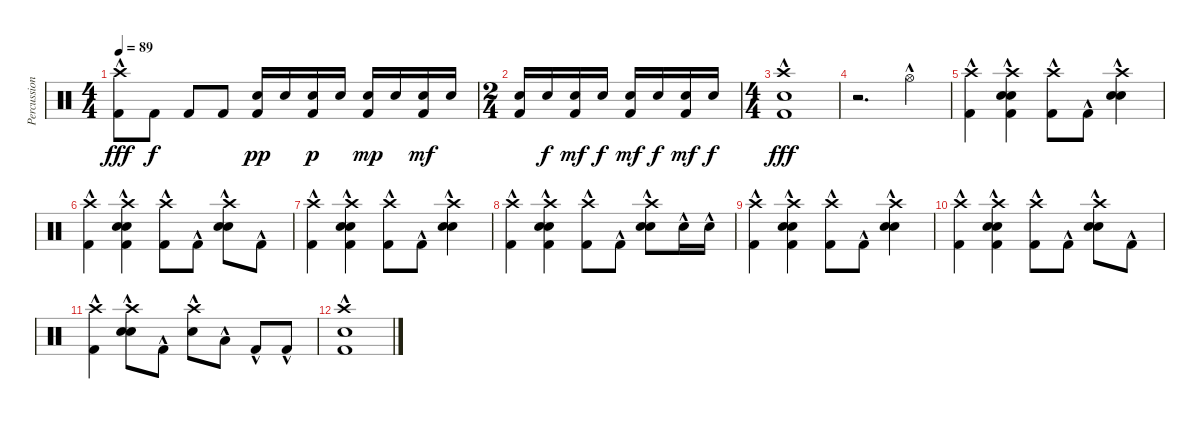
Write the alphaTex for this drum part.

\track ("Percussion" "Percussion") {instrument percussion}
\staff {score}
\articulation defaults
\ts (4 4)
\tempo 89
\clef neutral
\ks c
("Crash high (hit)" "Kick (hit) 2"{hac}).8{dy fff} "Kick (hit) 2".8{dy f} "Kick (hit) 2".8 "Kick (hit) 2".8 ("Electric Snare (hit)" "Kick (hit) 2").16{dy pp} "Electric Snare (hit)".16 ("Electric Snare (hit)" "Kick (hit) 2").16{dy p} "Electric Snare (hit)".16 ("Electric Snare (hit)" "Kick (hit) 2").16{dy mp} "Electric Snare (hit)".16 ("Electric Snare (hit)" "Kick (hit) 2").16{dy mf} "Electric Snare (hit)".16 |
\ts (2 4)
("Electric Snare (hit)" "Kick (hit) 2").16 "Electric Snare (hit)".16{dy f} ("Electric Snare (hit)" "Kick (hit) 2").16{dy mf} "Electric Snare (hit)".16{dy f} ("Electric Snare (hit)" "Kick (hit) 2").16{dy mf} "Electric Snare (hit)".16{dy f} ("Electric Snare (hit)" "Kick (hit) 2").16{dy mf} "Electric Snare (hit)".16{dy f} |
\ts (4 4)
("Crash high (hit)"{hac} "Electric Snare (hit)"{hac} "Kick (hit) 2"{hac}).1{dy fff} |
r.2{d} "Hi-Hat (open)"{hac}.4 |
("Crash high (hit)"{hac} "Kick (hit) 2"{hac}).4 ("Snare (hit) 2" "Crash high (hit)"{hac} "Electric Snare (hit)"{hac} "Kick (hit) 2"{hac}).4 ("Crash high (hit)"{hac} "Kick (hit) 2"{hac}).8 "Kick (hit) 2"{hac}.8 ("Snare (hit) 2" "Crash high (hit)"{hac} "Electric Snare (hit)"{hac}).4 |
("Crash high (hit)"{hac} "Kick (hit) 2"{hac}).4 ("Snare (hit) 2" "Crash high (hit)"{hac} "Electric Snare (hit)"{hac} "Kick (hit) 2"{hac}).4 ("Crash high (hit)"{hac} "Kick (hit) 2"{hac}).8 "Kick (hit) 2"{hac}.8 ("Snare (hit) 2" "Crash high (hit)"{hac} "Electric Snare (hit)"{hac}).8 "Kick (hit) 2"{hac}.8 |
("Crash high (hit)"{hac} "Kick (hit) 2"{hac}).4 ("Snare (hit) 2" "Crash high (hit)"{hac} "Electric Snare (hit)"{hac} "Kick (hit) 2"{hac}).4 ("Crash high (hit)"{hac} "Kick (hit) 2"{hac}).8 "Kick (hit) 2"{hac}.8 ("Snare (hit) 2" "Crash high (hit)"{hac} "Electric Snare (hit)"{hac}).4 |
("Crash high (hit)"{hac} "Kick (hit) 2"{hac}).4 ("Snare (hit) 2" "Crash high (hit)"{hac} "Electric Snare (hit)"{hac} "Kick (hit) 2"{hac}).4 ("Crash high (hit)"{hac} "Kick (hit) 2"{hac}).8 "Kick (hit) 2"{hac}.8 ("Snare (hit) 2" "Crash high (hit)"{hac} "Electric Snare (hit)"{hac}).8 "Electric Snare (hit)"{hac}.16 "Electric Snare (hit)"{hac}.16 |
("Crash high (hit)"{hac} "Kick (hit) 2"{hac}).4 ("Snare (hit) 2" "Crash high (hit)"{hac} "Electric Snare (hit)"{hac} "Kick (hit) 2"{hac}).4 ("Crash high (hit)"{hac} "Kick (hit) 2"{hac}).8 "Kick (hit) 2"{hac}.8 ("Snare (hit) 2" "Crash high (hit)"{hac} "Electric Snare (hit)"{hac}).4 |
("Crash high (hit)"{hac} "Kick (hit) 2"{hac}).4 ("Snare (hit) 2" "Crash high (hit)"{hac} "Electric Snare (hit)"{hac} "Kick (hit) 2"{hac}).4 ("Crash high (hit)"{hac} "Kick (hit) 2"{hac}).8 "Kick (hit) 2"{hac}.8 ("Snare (hit) 2" "Crash high (hit)"{hac} "Electric Snare (hit)"{hac}).8 "Kick (hit) 2"{hac}.8 |
("Crash high (hit)"{hac} "Kick (hit) 2"{hac}).4 ("Snare (hit) 2" "Crash high (hit)"{hac} "Electric Snare (hit)"{hac}).8 "Kick (hit) 2"{hac}.8 ("Crash high (hit)"{hac} "Electric Snare (hit)"{hac}).8 "Low Tom (hit)"{hac}.8 "Kick (hit) 2"{hac}.8 "Kick (hit) 2"{hac}.8 |
("Crash high (hit)"{hac} "Electric Snare (hit)"{hac} "Kick (hit) 2"{hac}).1
